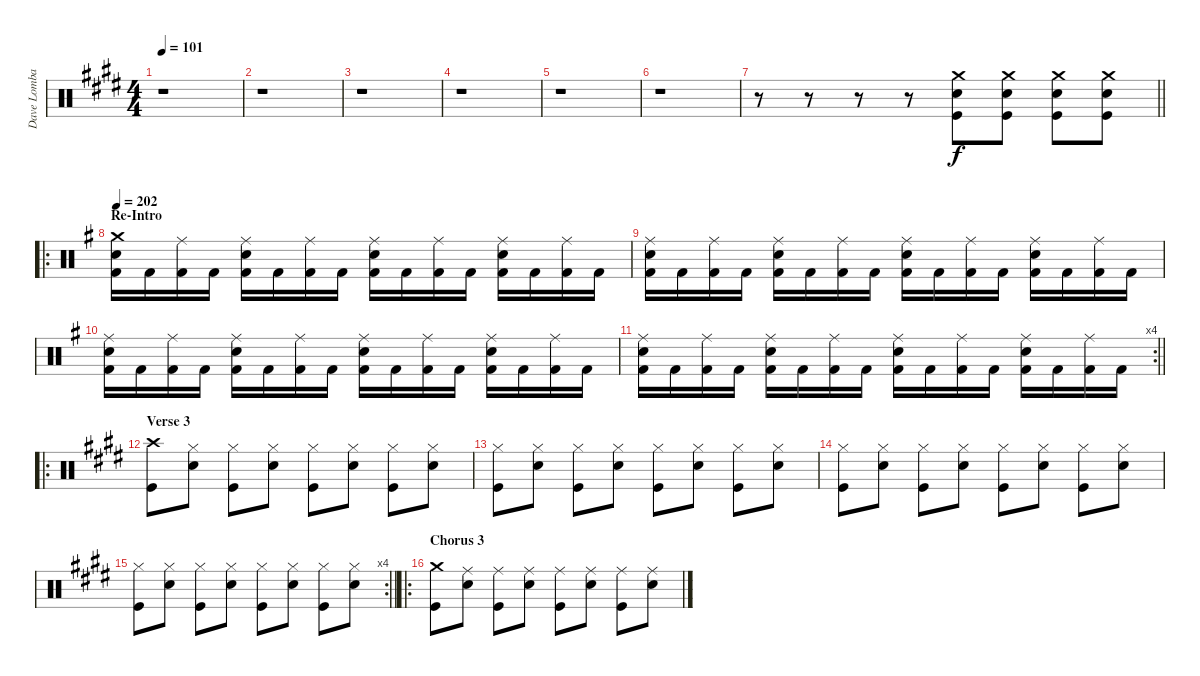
\track ("Dave Lombardo" "Dave Lomba") {instrument percussion}
\staff {score}
\articulation defaults
\ts (4 4)
\tempo 101
\clef neutral
\ks e
r.1{dy f} |
r.1 |
r.1 |
r.1 |
r.1 |
r.1 |
\barLineRight lightlight
r.8 r.8 r.8 r.8 ("Crash medium (hit)" "Snare (hit) 2" "Kick (hit)").8 ("Crash medium (hit)" "Snare (hit) 2" "Kick (hit)").8 ("Crash medium (hit)" "Snare (hit) 2" "Kick (hit)").8 ("Crash medium (hit)" "Snare (hit) 2" "Kick (hit)").8 |
\ro
\section ("" "Re-Intro")
\tempo 202
\ks g
("Crash medium (hit)" "Snare (hit) 2" "Kick (hit) 2").16 "Kick (hit) 2".16 ("Ride (middle)" "Kick (hit) 2").16 "Kick (hit) 2".16 ("Ride (middle)" "Snare (hit) 2" "Kick (hit) 2").16 "Kick (hit) 2".16 ("Ride (middle)" "Kick (hit) 2").16 "Kick (hit) 2".16 ("Ride (middle)" "Snare (hit) 2" "Kick (hit) 2").16 "Kick (hit) 2".16 ("Ride (middle)" "Kick (hit) 2").16 "Kick (hit) 2".16 ("Ride (middle)" "Snare (hit) 2" "Kick (hit) 2").16 "Kick (hit) 2".16 ("Ride (middle)" "Kick (hit) 2").16 "Kick (hit) 2".16 |
("Ride (middle)" "Snare (hit) 2" "Kick (hit) 2").16 "Kick (hit) 2".16 ("Ride (middle)" "Kick (hit) 2").16 "Kick (hit) 2".16 ("Ride (middle)" "Snare (hit) 2" "Kick (hit) 2").16 "Kick (hit) 2".16 ("Ride (middle)" "Kick (hit) 2").16 "Kick (hit) 2".16 ("Ride (middle)" "Snare (hit) 2" "Kick (hit) 2").16 "Kick (hit) 2".16 ("Ride (middle)" "Kick (hit) 2").16 "Kick (hit) 2".16 ("Ride (middle)" "Snare (hit) 2" "Kick (hit) 2").16 "Kick (hit) 2".16 ("Ride (middle)" "Kick (hit) 2").16 "Kick (hit) 2".16 |
("Ride (middle)" "Snare (hit) 2" "Kick (hit) 2").16 "Kick (hit) 2".16 ("Ride (middle)" "Kick (hit) 2").16 "Kick (hit) 2".16 ("Ride (middle)" "Snare (hit) 2" "Kick (hit) 2").16 "Kick (hit) 2".16 ("Ride (middle)" "Kick (hit) 2").16 "Kick (hit) 2".16 ("Ride (middle)" "Snare (hit) 2" "Kick (hit) 2").16 "Kick (hit) 2".16 ("Ride (middle)" "Kick (hit) 2").16 "Kick (hit) 2".16 ("Ride (middle)" "Snare (hit) 2" "Kick (hit) 2").16 "Kick (hit) 2".16 ("Ride (middle)" "Kick (hit) 2").16 "Kick (hit) 2".16 |
\rc 4
\barLineRight lightlight
("Ride (middle)" "Snare (hit) 2" "Kick (hit) 2").16 "Kick (hit) 2".16 ("Ride (middle)" "Kick (hit) 2").16 "Kick (hit) 2".16 ("Ride (middle)" "Snare (hit) 2" "Kick (hit) 2").16 "Kick (hit) 2".16 ("Ride (middle)" "Kick (hit) 2").16 "Kick (hit) 2".16 ("Ride (middle)" "Snare (hit) 2" "Kick (hit) 2").16 "Kick (hit) 2".16 ("Ride (middle)" "Kick (hit) 2").16 "Kick (hit) 2".16 ("Ride (middle)" "Snare (hit) 2" "Kick (hit) 2").16 "Kick (hit) 2".16 ("Ride (middle)" "Kick (hit) 2").16 "Kick (hit) 2".16 |
\ro
\section ("" "Verse 3")
\ks e
("Crash high (hit)" "Kick (hit)").8 ("Hi-Hat (closed)" "Snare (hit) 2").8 ("Hi-Hat (closed)" "Kick (hit)").8 ("Hi-Hat (closed)" "Snare (hit) 2").8 ("Hi-Hat (closed)" "Kick (hit)").8 ("Hi-Hat (closed)" "Snare (hit) 2").8 ("Hi-Hat (closed)" "Kick (hit)").8 ("Hi-Hat (closed)" "Snare (hit) 2").8 |
("Hi-Hat (closed)" "Kick (hit)").8 ("Hi-Hat (closed)" "Snare (hit) 2").8 ("Hi-Hat (closed)" "Kick (hit)").8 ("Hi-Hat (closed)" "Snare (hit) 2").8 ("Hi-Hat (closed)" "Kick (hit)").8 ("Hi-Hat (closed)" "Snare (hit) 2").8 ("Hi-Hat (closed)" "Kick (hit)").8 ("Hi-Hat (closed)" "Snare (hit) 2").8 |
("Hi-Hat (closed)" "Kick (hit)").8 ("Hi-Hat (closed)" "Snare (hit) 2").8 ("Hi-Hat (closed)" "Kick (hit)").8 ("Hi-Hat (closed)" "Snare (hit) 2").8 ("Hi-Hat (closed)" "Kick (hit)").8 ("Hi-Hat (closed)" "Snare (hit) 2").8 ("Hi-Hat (closed)" "Kick (hit)").8 ("Hi-Hat (closed)" "Snare (hit) 2").8 |
\rc 4
\barLineRight lightlight
("Hi-Hat (closed)" "Kick (hit)").8 ("Hi-Hat (closed)" "Snare (hit) 2").8 ("Hi-Hat (closed)" "Kick (hit)").8 ("Hi-Hat (closed)" "Snare (hit) 2").8 ("Hi-Hat (closed)" "Kick (hit)").8 ("Hi-Hat (closed)" "Snare (hit) 2").8 ("Hi-Hat (closed)" "Kick (hit)").8 ("Hi-Hat (closed)" "Snare (hit) 2").8 |
\ro
\section ("" "Chorus 3")
("Crash medium (hit)" "Kick (hit)").8 ("Ride (middle)" "Snare (hit) 2").8 ("Ride (middle)" "Kick (hit)").8 ("Ride (middle)" "Snare (hit) 2").8 ("Ride (middle)" "Kick (hit)").8 ("Ride (middle)" "Snare (hit) 2").8 ("Ride (middle)" "Kick (hit)").8 ("Ride (middle)" "Snare (hit) 2").8
